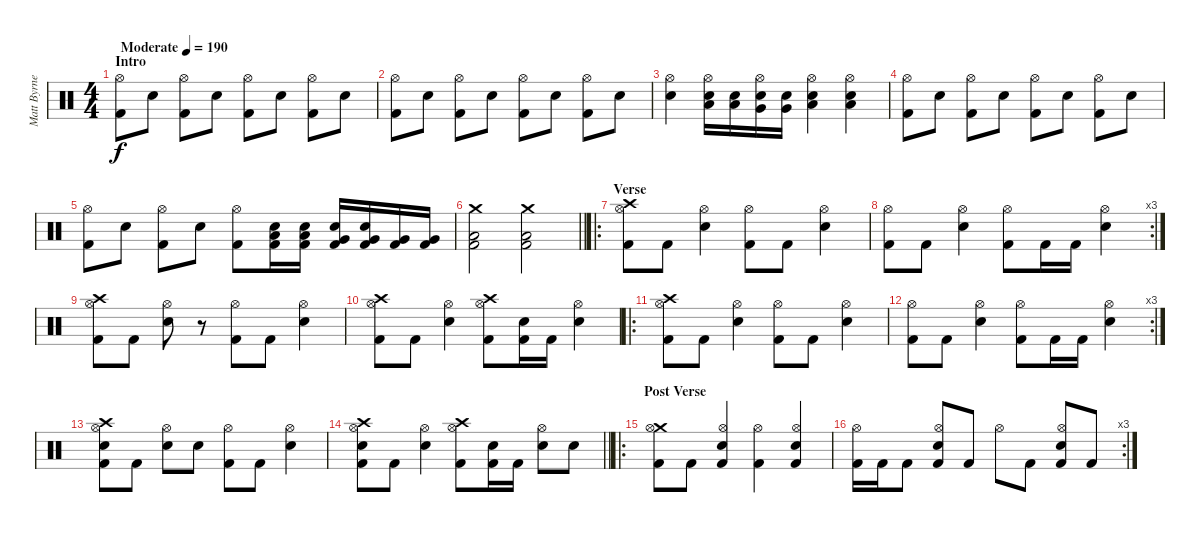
\track ("Matt Byrne" "Matt Byrne") {instrument percussion}
\staff {score}
\articulation defaults
\ts (4 4)
\section ("" "Intro")
\tempo (190 "Moderate")
\clef neutral
\ks c
("Kick (hit) 2" "Hi-Hat (open)").8{dy f} "Snare (hit) 2".8 ("Kick (hit) 2" "Hi-Hat (open)").8 "Snare (hit) 2".8 ("Kick (hit) 2" "Hi-Hat (open)").8 "Snare (hit) 2".8 ("Kick (hit) 2" "Hi-Hat (open)").8 "Snare (hit) 2".8 |
("Kick (hit) 2" "Hi-Hat (open)").8 "Snare (hit) 2".8 ("Kick (hit) 2" "Hi-Hat (open)").8 "Snare (hit) 2".8 ("Kick (hit) 2" "Hi-Hat (open)").8 "Snare (hit) 2".8 ("Kick (hit) 2" "Hi-Hat (open)").8 "Snare (hit) 2".8 |
("Hi-Hat (open)" "Snare (hit) 2").4 ("Hi-Hat (open)" "Low Tom (hit)" "Snare (hit) 2").16 ("Low Tom (hit)" "Snare (hit) 2").16 ("Hi-Hat (open)" "Very Low Tom (hit)" "Snare (hit) 2").16 ("Very Low Tom (hit)" "Snare (hit) 2").16 ("Hi-Hat (open)" "Low Floor Tom (hit)" "Snare (hit) 2").4 ("Hi-Hat (open)" "Low Floor Tom (hit)" "Snare (hit) 2").4 |
("Kick (hit) 2" "Hi-Hat (open)").8 "Snare (hit) 2".8 ("Kick (hit) 2" "Hi-Hat (open)").8 "Snare (hit) 2".8 ("Kick (hit) 2" "Hi-Hat (open)").8 "Snare (hit) 2".8 ("Kick (hit) 2" "Hi-Hat (open)").8 "Snare (hit) 2".8 |
("Kick (hit) 2" "Hi-Hat (open)").8 "Snare (hit) 2".8 ("Kick (hit) 2" "Hi-Hat (open)").8 "Snare (hit) 2".8 ("Kick (hit) 2" "Hi-Hat (open)").8 ("Low Tom (hit)" "Snare (hit) 2" "Kick (hit) 2").16 ("Low Tom (hit)" "Snare (hit) 2" "Kick (hit) 2").16 ("Very Low Tom (hit)" "Snare (hit) 2" "Kick (hit) 2").16 ("Very Low Tom (hit)" "Snare (hit) 2" "Kick (hit) 2").16 ("Very Low Tom (hit)" "Kick (hit) 2").16 ("Very Low Tom (hit)" "Kick (hit) 2").16 |
\barLineRight lightlight
("Crash medium (hit)" "Low Floor Tom (hit)" "Kick (hit) 2").2 ("Crash medium (hit)" "Low Floor Tom (hit)" "Kick (hit) 2").2 |
\ro
\section ("" "Verse")
("Crash high (hit)" "Hi-Hat (open)" "Kick (hit) 2").8 "Kick (hit) 2".8 ("Hi-Hat (open)" "Snare (hit) 2").4 ("Hi-Hat (open)" "Kick (hit) 2").8 "Kick (hit) 2".8 ("Hi-Hat (open)" "Snare (hit) 2").4 |
\rc 3
("Hi-Hat (open)" "Kick (hit) 2").8 "Kick (hit) 2".8 ("Hi-Hat (open)" "Snare (hit) 2").4 ("Hi-Hat (open)" "Kick (hit) 2").8 "Kick (hit) 2".16 "Kick (hit) 2".16 ("Hi-Hat (open)" "Snare (hit) 2").4 |
("Crash high (hit)" "Hi-Hat (open)" "Kick (hit) 2").8 "Kick (hit) 2".8 ("Hi-Hat (open)" "Snare (hit) 2").8 r.8 ("Hi-Hat (open)" "Kick (hit) 2").8 "Kick (hit) 2".8 ("Hi-Hat (open)" "Snare (hit) 2").4 |
("Crash high (hit)" "Hi-Hat (open)" "Kick (hit) 2").8 "Kick (hit) 2".8 ("Hi-Hat (open)" "Snare (hit) 2").4 ("Crash high (hit)" "Hi-Hat (open)" "Kick (hit) 2").8 ("Snare (hit) 2" "Kick (hit) 2").16 "Kick (hit) 2".16 ("Hi-Hat (open)" "Snare (hit) 2").4 |
\ro
("Crash high (hit)" "Hi-Hat (open)" "Kick (hit) 2").8 "Kick (hit) 2".8 ("Hi-Hat (open)" "Snare (hit) 2").4 ("Hi-Hat (open)" "Kick (hit) 2").8 "Kick (hit) 2".8 ("Hi-Hat (open)" "Snare (hit) 2").4 |
\rc 3
("Hi-Hat (open)" "Kick (hit) 2").8 "Kick (hit) 2".8 ("Hi-Hat (open)" "Snare (hit) 2").4 ("Hi-Hat (open)" "Kick (hit) 2").8 "Kick (hit) 2".16 "Kick (hit) 2".16 ("Hi-Hat (open)" "Snare (hit) 2").4 |
("Snare (hit) 2" "Crash high (hit)" "Hi-Hat (open)" "Kick (hit) 2").8 "Kick (hit) 2".8 ("Hi-Hat (open)" "Snare (hit) 2").8 "Snare (hit) 2".8 ("Hi-Hat (open)" "Kick (hit) 2").8 "Kick (hit) 2".8 ("Hi-Hat (open)" "Snare (hit) 2").4 |
\barLineRight lightlight
("Snare (hit) 2" "Crash high (hit)" "Hi-Hat (open)" "Kick (hit) 2").8 "Kick (hit) 2".8 ("Hi-Hat (open)" "Snare (hit) 2").4 ("Crash high (hit)" "Hi-Hat (open)" "Kick (hit) 2").8 ("Snare (hit) 2" "Kick (hit) 2").16 "Kick (hit) 2".16 ("Hi-Hat (open)" "Snare (hit) 2").8 "Snare (hit) 2".8 |
\ro
\section ("" "Post Verse")
("Crash medium (hit)" "Hi-Hat (open)" "Kick (hit) 2").8 "Kick (hit) 2".8 ("Snare (hit) 2" "Hi-Hat (open)" "Kick (hit) 2").4 ("Hi-Hat (open)" "Kick (hit) 2").4 ("Snare (hit) 2" "Hi-Hat (open)" "Kick (hit) 2").4 |
\rc 3
("Hi-Hat (open)" "Kick (hit) 2").16 "Kick (hit) 2".16 "Kick (hit) 2".8 ("Snare (hit) 2" "Hi-Hat (open)" "Kick (hit) 2").8 "Kick (hit) 2".8 "Hi-Hat (open)".8 "Kick (hit) 2".8 ("Hi-Hat (open)" "Snare (hit) 2" "Kick (hit) 2").8 "Kick (hit) 2".8
